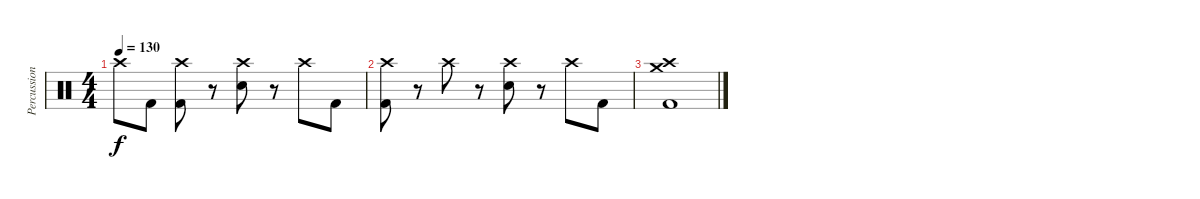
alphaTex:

\track ("Percussion" "Percussion") {instrument percussion}
\staff {score}
\articulation defaults
\ts (4 4)
\tempo 130
\clef neutral
\ks c "Crash high (hit)".8{dy f} "Kick (hit) 2".8
("Crash high (hit)" "Kick (hit) 2").8 r.8 ("Crash high (hit)" "Electric Snare (hit)").8 r.8 "Crash high (hit)".8 "Kick (hit) 2".8 |
("Crash high (hit)" "Kick (hit) 2").8 r.8 "Crash high (hit)".8 r.8 ("Crash high (hit)" "Electric Snare (hit)").8 r.8 "Crash high (hit)".8 "Kick (hit) 2".8 |
("Crash high (hit)" "Crash medium (hit)" "Kick (hit) 2").1
